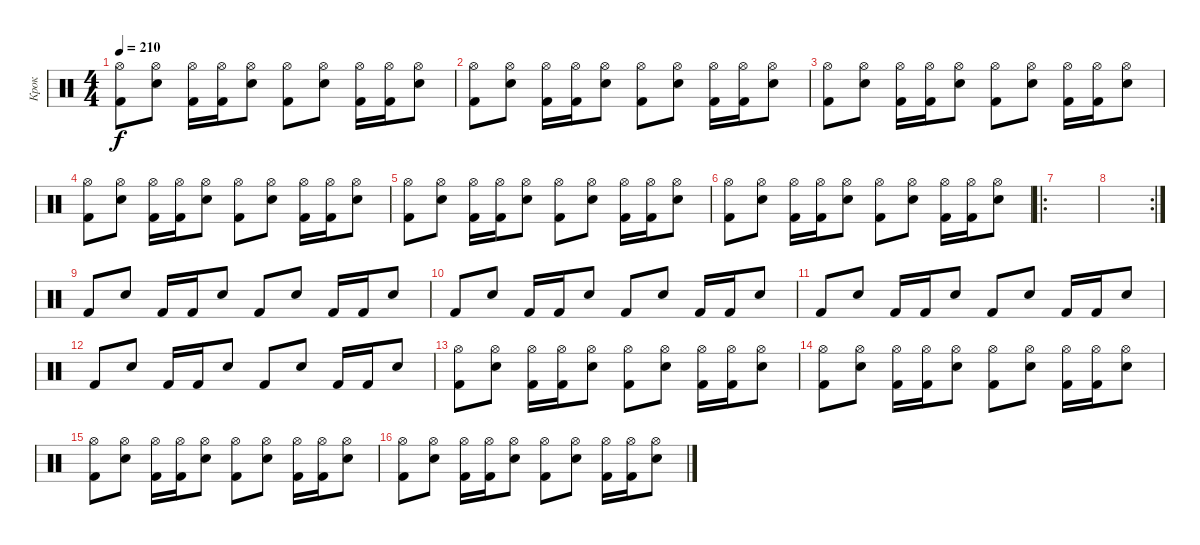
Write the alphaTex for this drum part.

\track ("Крок" "Крок") {instrument percussion}
\staff {score}
\articulation defaults
\ts (4 4)
\tempo 210
\clef neutral
\ks c
("Hi-Hat (open)" "Kick (hit) 2").8{dy f} ("Hi-Hat (open)" "Electric Snare (hit)").8 ("Hi-Hat (open)" "Kick (hit) 2").16 ("Hi-Hat (open)" "Kick (hit) 2").16 ("Hi-Hat (open)" "Electric Snare (hit)").8 ("Hi-Hat (open)" "Kick (hit) 2").8 ("Hi-Hat (open)" "Electric Snare (hit)").8 ("Hi-Hat (open)" "Kick (hit) 2").16 ("Hi-Hat (open)" "Kick (hit) 2").16 ("Hi-Hat (open)" "Electric Snare (hit)").8 |
("Hi-Hat (open)" "Kick (hit) 2").8 ("Hi-Hat (open)" "Electric Snare (hit)").8 ("Hi-Hat (open)" "Kick (hit) 2").16 ("Hi-Hat (open)" "Kick (hit) 2").16 ("Hi-Hat (open)" "Electric Snare (hit)").8 ("Hi-Hat (open)" "Kick (hit) 2").8 ("Hi-Hat (open)" "Electric Snare (hit)").8 ("Hi-Hat (open)" "Kick (hit) 2").16 ("Hi-Hat (open)" "Kick (hit) 2").16 ("Hi-Hat (open)" "Electric Snare (hit)").8 |
("Hi-Hat (open)" "Kick (hit) 2").8 ("Hi-Hat (open)" "Electric Snare (hit)").8 ("Hi-Hat (open)" "Kick (hit) 2").16 ("Hi-Hat (open)" "Kick (hit) 2").16 ("Hi-Hat (open)" "Electric Snare (hit)").8 ("Hi-Hat (open)" "Kick (hit) 2").8 ("Hi-Hat (open)" "Electric Snare (hit)").8 ("Hi-Hat (open)" "Kick (hit) 2").16 ("Hi-Hat (open)" "Kick (hit) 2").16 ("Hi-Hat (open)" "Electric Snare (hit)").8 |
("Hi-Hat (open)" "Kick (hit) 2").8 ("Hi-Hat (open)" "Electric Snare (hit)").8 ("Hi-Hat (open)" "Kick (hit) 2").16 ("Hi-Hat (open)" "Kick (hit) 2").16 ("Hi-Hat (open)" "Electric Snare (hit)").8 ("Hi-Hat (open)" "Kick (hit) 2").8 ("Hi-Hat (open)" "Electric Snare (hit)").8 ("Hi-Hat (open)" "Kick (hit) 2").16 ("Hi-Hat (open)" "Kick (hit) 2").16 ("Hi-Hat (open)" "Electric Snare (hit)").8 |
("Hi-Hat (open)" "Kick (hit) 2").8 ("Hi-Hat (open)" "Electric Snare (hit)").8 ("Hi-Hat (open)" "Kick (hit) 2").16 ("Hi-Hat (open)" "Kick (hit) 2").16 ("Hi-Hat (open)" "Electric Snare (hit)").8 ("Hi-Hat (open)" "Kick (hit) 2").8 ("Hi-Hat (open)" "Electric Snare (hit)").8 ("Hi-Hat (open)" "Kick (hit) 2").16 ("Hi-Hat (open)" "Kick (hit) 2").16 ("Hi-Hat (open)" "Electric Snare (hit)").8 |
("Hi-Hat (open)" "Kick (hit) 2").8 ("Hi-Hat (open)" "Electric Snare (hit)").8 ("Hi-Hat (open)" "Kick (hit) 2").16 ("Hi-Hat (open)" "Kick (hit) 2").16 ("Hi-Hat (open)" "Electric Snare (hit)").8 ("Hi-Hat (open)" "Kick (hit) 2").8 ("Hi-Hat (open)" "Electric Snare (hit)").8 ("Hi-Hat (open)" "Kick (hit) 2").16 ("Hi-Hat (open)" "Kick (hit) 2").16 ("Hi-Hat (open)" "Electric Snare (hit)").8 |
\ro
|
\rc 2
|
"Kick (hit) 2".8 "Electric Snare (hit)".8 "Kick (hit) 2".16 "Kick (hit) 2".16 "Electric Snare (hit)".8 "Kick (hit) 2".8 "Electric Snare (hit)".8 "Kick (hit) 2".16 "Kick (hit) 2".16 "Electric Snare (hit)".8 |
"Kick (hit) 2".8 "Electric Snare (hit)".8 "Kick (hit) 2".16 "Kick (hit) 2".16 "Electric Snare (hit)".8 "Kick (hit) 2".8 "Electric Snare (hit)".8 "Kick (hit) 2".16 "Kick (hit) 2".16 "Electric Snare (hit)".8 |
"Kick (hit) 2".8 "Electric Snare (hit)".8 "Kick (hit) 2".16 "Kick (hit) 2".16 "Electric Snare (hit)".8 "Kick (hit) 2".8 "Electric Snare (hit)".8 "Kick (hit) 2".16 "Kick (hit) 2".16 "Electric Snare (hit)".8 |
"Kick (hit) 2".8 "Electric Snare (hit)".8 "Kick (hit) 2".16 "Kick (hit) 2".16 "Electric Snare (hit)".8 "Kick (hit) 2".8 "Electric Snare (hit)".8 "Kick (hit) 2".16 "Kick (hit) 2".16 "Electric Snare (hit)".8 |
("Hi-Hat (open)" "Kick (hit) 2").8 ("Hi-Hat (open)" "Electric Snare (hit)").8 ("Hi-Hat (open)" "Kick (hit) 2").16 ("Hi-Hat (open)" "Kick (hit) 2").16 ("Hi-Hat (open)" "Electric Snare (hit)").8 ("Hi-Hat (open)" "Kick (hit) 2").8 ("Hi-Hat (open)" "Electric Snare (hit)").8 ("Hi-Hat (open)" "Kick (hit) 2").16 ("Hi-Hat (open)" "Kick (hit) 2").16 ("Hi-Hat (open)" "Electric Snare (hit)").8 |
("Hi-Hat (open)" "Kick (hit) 2").8 ("Hi-Hat (open)" "Electric Snare (hit)").8 ("Hi-Hat (open)" "Kick (hit) 2").16 ("Hi-Hat (open)" "Kick (hit) 2").16 ("Hi-Hat (open)" "Electric Snare (hit)").8 ("Hi-Hat (open)" "Kick (hit) 2").8 ("Hi-Hat (open)" "Electric Snare (hit)").8 ("Hi-Hat (open)" "Kick (hit) 2").16 ("Hi-Hat (open)" "Kick (hit) 2").16 ("Hi-Hat (open)" "Electric Snare (hit)").8 |
("Hi-Hat (open)" "Kick (hit) 2").8 ("Hi-Hat (open)" "Electric Snare (hit)").8 ("Hi-Hat (open)" "Kick (hit) 2").16 ("Hi-Hat (open)" "Kick (hit) 2").16 ("Hi-Hat (open)" "Electric Snare (hit)").8 ("Hi-Hat (open)" "Kick (hit) 2").8 ("Hi-Hat (open)" "Electric Snare (hit)").8 ("Hi-Hat (open)" "Kick (hit) 2").16 ("Hi-Hat (open)" "Kick (hit) 2").16 ("Hi-Hat (open)" "Electric Snare (hit)").8 |
("Hi-Hat (open)" "Kick (hit) 2").8 ("Hi-Hat (open)" "Electric Snare (hit)").8 ("Hi-Hat (open)" "Kick (hit) 2").16 ("Hi-Hat (open)" "Kick (hit) 2").16 ("Hi-Hat (open)" "Electric Snare (hit)").8 ("Hi-Hat (open)" "Kick (hit) 2").8 ("Hi-Hat (open)" "Electric Snare (hit)").8 ("Hi-Hat (open)" "Kick (hit) 2").16 ("Hi-Hat (open)" "Kick (hit) 2").16 ("Hi-Hat (open)" "Electric Snare (hit)").8
